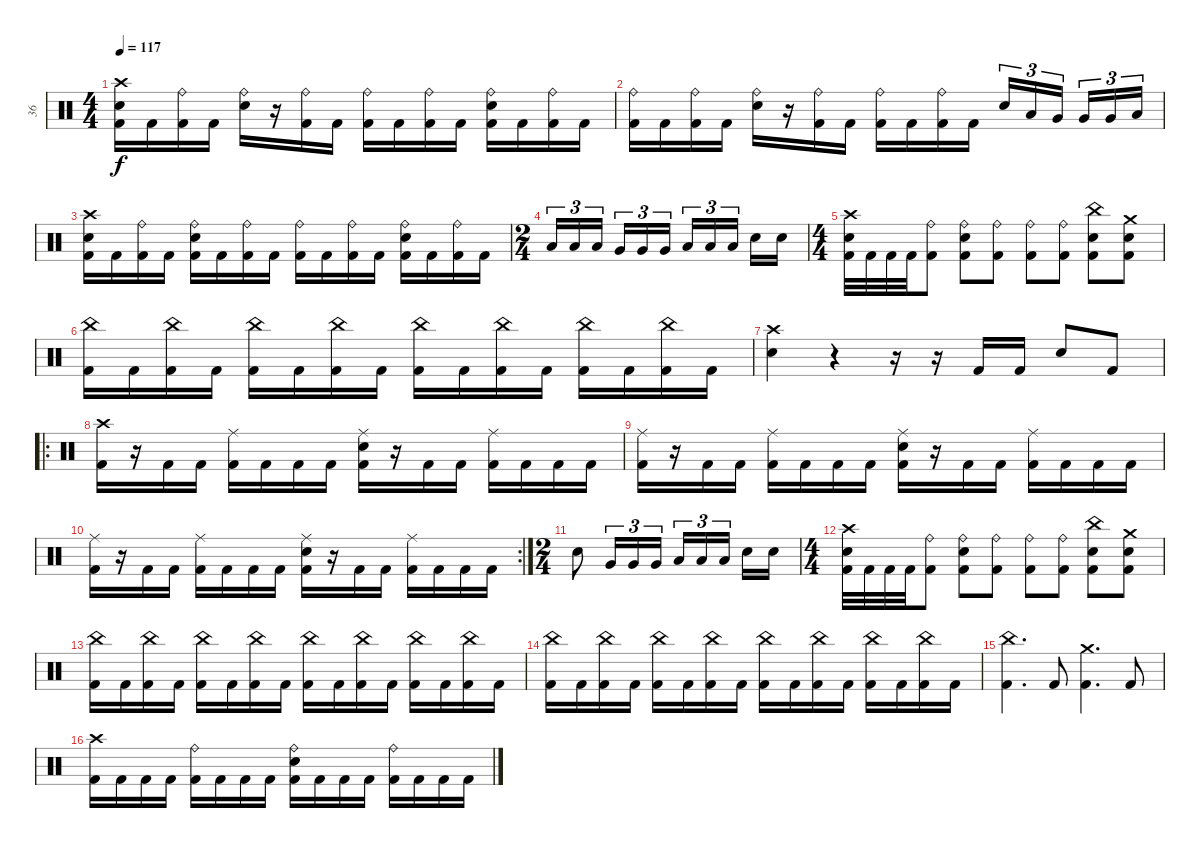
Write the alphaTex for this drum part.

\track ("36" "36") {instrument percussion}
\staff {score}
\articulation defaults
\ts (4 4)
\tempo 117
\clef neutral
\ks c
("Crash high (hit)" "Electric Snare (hit)" "Kick (hit) 2").16{dy f} "Kick (hit) 2".16 ("Ride (bell)" "Kick (hit) 2").16 "Kick (hit) 2".16 ("Ride (bell)" "Electric Snare (hit)").16 r.16 ("Ride (bell)" "Kick (hit) 2").16 "Kick (hit) 2".16 ("Ride (bell)" "Kick (hit) 2").16 "Kick (hit) 2".16 ("Ride (bell)" "Kick (hit) 2").16 "Kick (hit) 2".16 ("Ride (bell)" "Electric Snare (hit)" "Kick (hit) 2").16 "Kick (hit) 2".16 ("Ride (bell)" "Kick (hit) 2").16 "Kick (hit) 2".16 |
("Ride (bell)" "Kick (hit) 2").16 "Kick (hit) 2".16 ("Ride (bell)" "Kick (hit) 2").16 "Kick (hit) 2".16 ("Ride (bell)" "Electric Snare (hit)").16 r.16 ("Ride (bell)" "Kick (hit) 2").16 "Kick (hit) 2".16 ("Ride (bell)" "Kick (hit) 2").16 "Kick (hit) 2".16 ("Ride (bell)" "Kick (hit) 2").16 "Kick (hit) 2".16 "Electric Snare (hit)".16{tu (3 2)} "Low Tom (hit)".16{tu (3 2)} "Very Low Tom (hit)".16{tu (3 2) beam splitsecondary} "Very Low Tom (hit)".16{tu (3 2)} "Very Low Tom (hit)".16{tu (3 2)} "Low Floor Tom (hit)".16{tu (3 2)} |
("Crash high (hit)" "Electric Snare (hit)" "Kick (hit) 2").16 "Kick (hit) 2".16 ("Ride (bell)" "Kick (hit) 2").16 "Kick (hit) 2".16 ("Ride (bell)" "Electric Snare (hit)" "Kick (hit) 2").16 "Kick (hit) 2".16 ("Ride (bell)" "Kick (hit) 2").16 "Kick (hit) 2".16 ("Ride (bell)" "Kick (hit) 2").16 "Kick (hit) 2".16 ("Ride (bell)" "Kick (hit) 2").16 "Kick (hit) 2".16 ("Ride (bell)" "Electric Snare (hit)" "Kick (hit) 2").16 "Kick (hit) 2".16 ("Ride (bell)" "Kick (hit) 2").16 "Kick (hit) 2".16 |
\ts (2 4)
"Low Tom (hit)".16{tu (3 2)} "Low Tom (hit)".16{tu (3 2)} "Low Tom (hit)".16{tu (3 2) beam splitsecondary} "Very Low Tom (hit)".16{tu (3 2)} "Very Low Tom (hit)".16{tu (3 2)} "Very Low Tom (hit)".16{tu (3 2)} "Low Floor Tom (hit)".16{tu (3 2)} "Low Floor Tom (hit)".16{tu (3 2)} "Low Floor Tom (hit)".16{tu (3 2) beam splitsecondary} "Electric Snare (hit)".16 "Electric Snare (hit)".16 |
\ts (4 4)
("Crash high (hit)" "Electric Snare (hit)" "Kick (hit) 2").32 "Kick (hit) 2".32 "Kick (hit) 2".32 "Kick (hit) 2".32 ("Ride (bell)" "Kick (hit) 2").8 ("Ride (bell)" "Electric Snare (hit)" "Kick (hit) 2").8 ("Ride (bell)" "Kick (hit) 2").8 ("Ride (bell)" "Kick (hit) 2").8 ("Ride (bell)" "Kick (hit) 2").8 ("China (hit)" "Electric Snare (hit)" "Kick (hit) 2").8 ("Crash medium (hit)" "Electric Snare (hit)" "Kick (hit) 2").8 |
("China (hit)" "Kick (hit) 2").16 "Kick (hit) 2".16 ("China (hit)" "Kick (hit) 2").16 "Kick (hit) 2".16 ("China (hit)" "Kick (hit) 2").16 "Kick (hit) 2".16 ("China (hit)" "Kick (hit) 2").16 "Kick (hit) 2".16 ("China (hit)" "Kick (hit) 2").16 "Kick (hit) 2".16 ("China (hit)" "Kick (hit) 2").16 "Kick (hit) 2".16 ("China (hit)" "Kick (hit) 2").16 "Kick (hit) 2".16 ("China (hit)" "Kick (hit) 2").16 "Kick (hit) 2".16 |
("Crash high (hit)" "Electric Snare (hit)").4 r.4 r.16 r.16 "Kick (hit) 2".16 "Kick (hit) 2".16 "Electric Snare (hit)".8 "Kick (hit) 2".8 |
\ro
("Crash high (hit)" "Kick (hit) 2").16 r.16 "Kick (hit) 2".16 "Kick (hit) 2".16 ("Ride (middle)" "Kick (hit) 2").16 "Kick (hit) 2".16 "Kick (hit) 2".16 "Kick (hit) 2".16 ("Ride (middle)" "Electric Snare (hit)" "Kick (hit) 2").16 r.16 "Kick (hit) 2".16 "Kick (hit) 2".16 ("Ride (middle)" "Kick (hit) 2").16 "Kick (hit) 2".16 "Kick (hit) 2".16 "Kick (hit) 2".16 |
("Ride (middle)" "Kick (hit) 2").16 r.16 "Kick (hit) 2".16 "Kick (hit) 2".16 ("Ride (middle)" "Kick (hit) 2").16 "Kick (hit) 2".16 "Kick (hit) 2".16 "Kick (hit) 2".16 ("Ride (middle)" "Electric Snare (hit)" "Kick (hit) 2").16 r.16 "Kick (hit) 2".16 "Kick (hit) 2".16 ("Ride (middle)" "Kick (hit) 2").16 "Kick (hit) 2".16 "Kick (hit) 2".16 "Kick (hit) 2".16 |
\rc 2
("Ride (middle)" "Kick (hit) 2").16 r.16 "Kick (hit) 2".16 "Kick (hit) 2".16 ("Ride (middle)" "Kick (hit) 2").16 "Kick (hit) 2".16 "Kick (hit) 2".16 "Kick (hit) 2".16 ("Ride (middle)" "Electric Snare (hit)" "Kick (hit) 2").16 r.16 "Kick (hit) 2".16 "Kick (hit) 2".16 ("Ride (middle)" "Kick (hit) 2").16 "Kick (hit) 2".16 "Kick (hit) 2".16 "Kick (hit) 2".16 |
\ts (2 4)
"Electric Snare (hit)".8 "Very Low Tom (hit)".16{tu (3 2)} "Very Low Tom (hit)".16{tu (3 2)} "Very Low Tom (hit)".16{tu (3 2)} "Low Floor Tom (hit)".16{tu (3 2)} "Low Floor Tom (hit)".16{tu (3 2)} "Low Floor Tom (hit)".16{tu (3 2) beam splitsecondary} "Electric Snare (hit)".16 "Electric Snare (hit)".16 |
\ts (4 4)
("Crash high (hit)" "Electric Snare (hit)" "Kick (hit) 2").32 "Kick (hit) 2".32 "Kick (hit) 2".32 "Kick (hit) 2".32 ("Ride (bell)" "Kick (hit) 2").8 ("Ride (bell)" "Electric Snare (hit)" "Kick (hit) 2").8 ("Ride (bell)" "Kick (hit) 2").8 ("Ride (bell)" "Kick (hit) 2").8 ("Ride (bell)" "Kick (hit) 2").8 ("China (hit)" "Electric Snare (hit)" "Kick (hit) 2").8 ("Crash medium (hit)" "Electric Snare (hit)" "Kick (hit) 2").8 |
("China (hit)" "Kick (hit) 2").16 "Kick (hit) 2".16 ("China (hit)" "Kick (hit) 2").16 "Kick (hit) 2".16 ("China (hit)" "Kick (hit) 2").16 "Kick (hit) 2".16 ("China (hit)" "Kick (hit) 2").16 "Kick (hit) 2".16 ("China (hit)" "Kick (hit) 2").16 "Kick (hit) 2".16 ("China (hit)" "Kick (hit) 2").16 "Kick (hit) 2".16 ("China (hit)" "Kick (hit) 2").16 "Kick (hit) 2".16 ("China (hit)" "Kick (hit) 2").16 "Kick (hit) 2".16 |
("China (hit)" "Kick (hit) 2").16 "Kick (hit) 2".16 ("China (hit)" "Kick (hit) 2").16 "Kick (hit) 2".16 ("China (hit)" "Kick (hit) 2").16 "Kick (hit) 2".16 ("China (hit)" "Kick (hit) 2").16 "Kick (hit) 2".16 ("China (hit)" "Kick (hit) 2").16 "Kick (hit) 2".16 ("China (hit)" "Kick (hit) 2").16 "Kick (hit) 2".16 ("China (hit)" "Kick (hit) 2").16 "Kick (hit) 2".16 ("China (hit)" "Kick (hit) 2").16 "Kick (hit) 2".16 |
("China (hit)" "Kick (hit) 2").4{d} "Kick (hit) 2".8 ("Crash medium (hit)" "Kick (hit) 2").4{d} "Kick (hit) 2".8 |
("Crash high (hit)" "Kick (hit) 2").16 "Kick (hit) 2".16 "Kick (hit) 2".16 "Kick (hit) 2".16 ("Ride (bell)" "Kick (hit) 2").16 "Kick (hit) 2".16 "Kick (hit) 2".16 "Kick (hit) 2".16 ("Ride (bell)" "Electric Snare (hit)" "Kick (hit) 2").16 "Kick (hit) 2".16 "Kick (hit) 2".16 "Kick (hit) 2".16 ("Ride (bell)" "Kick (hit) 2").16 "Kick (hit) 2".16 "Kick (hit) 2".16 "Kick (hit) 2".16
